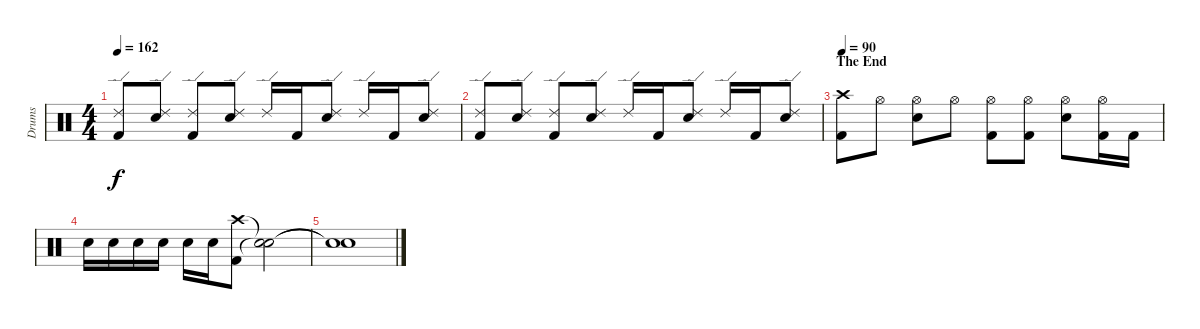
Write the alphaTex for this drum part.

\track ("Drums" "Drums") {instrument percussion}
\staff {score}
\articulation defaults
\ts (4 4)
\tempo 162
\clef neutral
\ks c
("Kick (hit) 2" "Ride (edge) 2").8{dy f} ("Electric Snare (hit)" "Ride (edge) 2").8 ("Kick (hit) 2" "Ride (edge) 2").8 ("Electric Snare (hit)" "Ride (edge) 2").8 "Ride (edge) 2".16 "Kick (hit) 2".16 ("Electric Snare (hit)" "Ride (edge) 2").8 "Ride (edge) 2".16 "Kick (hit) 2".16 ("Electric Snare (hit)" "Ride (edge) 2").8 |
("Kick (hit) 2" "Ride (edge) 2").8 ("Electric Snare (hit)" "Ride (edge) 2").8 ("Kick (hit) 2" "Ride (edge) 2").8 ("Electric Snare (hit)" "Ride (edge) 2").8 "Ride (edge) 2".16 "Kick (hit) 2".16 ("Electric Snare (hit)" "Ride (edge) 2").8 "Ride (edge) 2".16 "Kick (hit) 2".16 ("Electric Snare (hit)" "Ride (edge) 2").8 |
\section ("" "The End")
\tempo 90
("Kick (hit) 2" "Crash high (hit)").8 "Hi-Hat (open)".8 ("Electric Snare (hit)" "Hi-Hat (open)").8 "Hi-Hat (open)".8 ("Kick (hit) 2" "Hi-Hat (open)").8 ("Kick (hit) 2" "Hi-Hat (open)").8 ("Electric Snare (hit)" "Hi-Hat (open)").8 ("Kick (hit) 2" "Hi-Hat (open)").16 "Kick (hit) 2".16 |
"Electric Snare (hit)".16 "Electric Snare (hit)".16 "Electric Snare (hit)".16 "Electric Snare (hit)".16 "Electric Snare (hit)".16 "Electric Snare (hit)".16 ("Kick (hit) 2" "Crash high (hit)").8 ("Snare (hit)"{t} "Snare (hit)"{t}).2 |
("Snare (hit)"{t} "Snare (hit)"{t}).1
